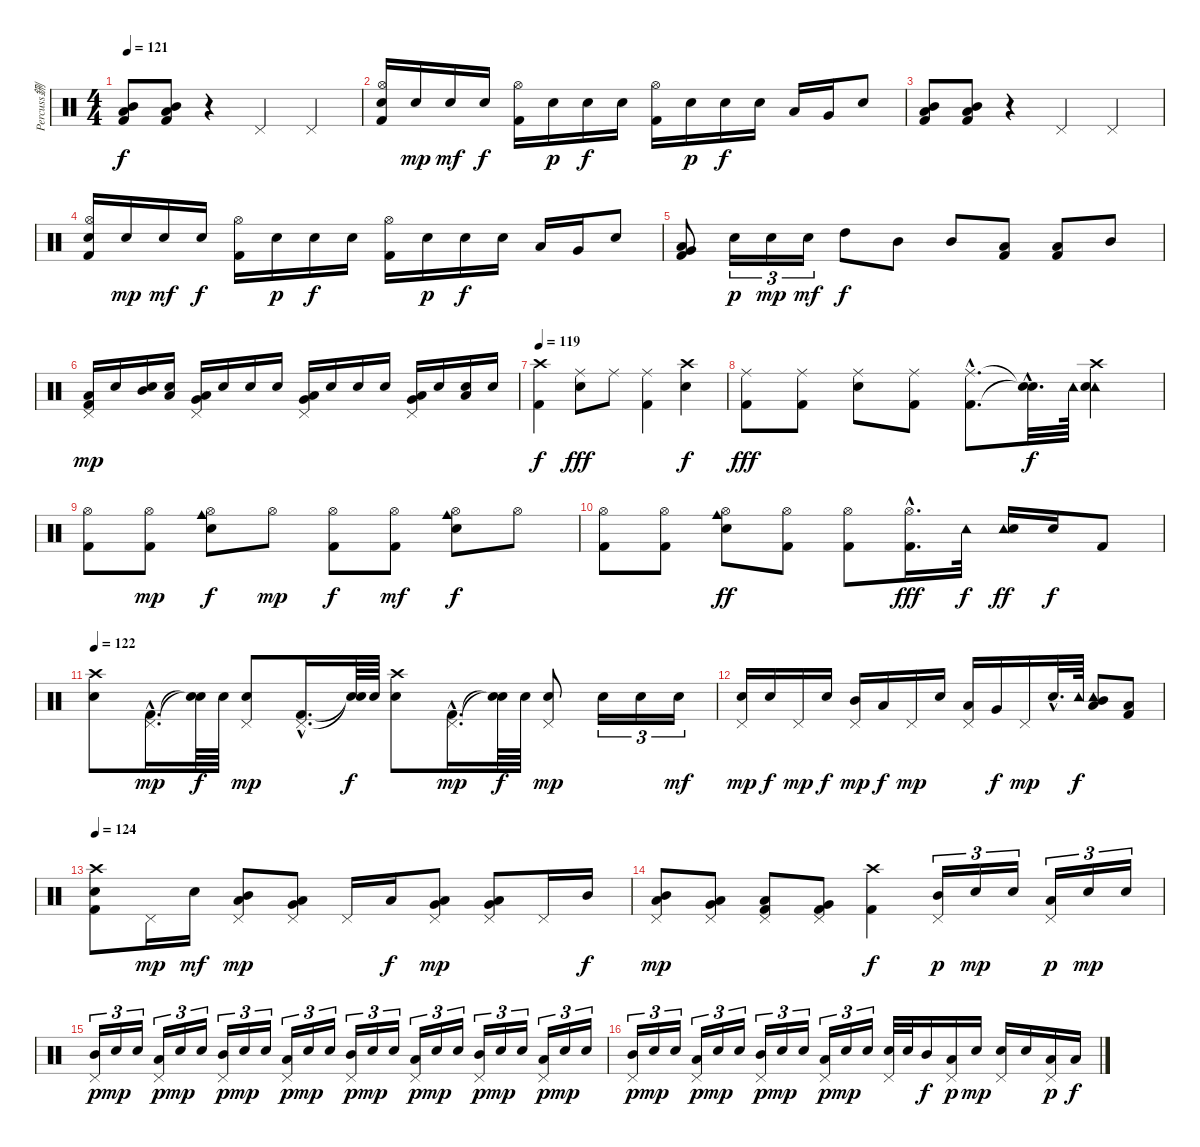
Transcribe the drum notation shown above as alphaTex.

\track ("Percuss鉶" "Percuss鉶") {instrument percussion}
\staff {score}
\articulation defaults
\ts (4 4)
\tempo 121
\clef neutral
\ks c
("Mid Tom (hit)" "Low Tom (hit)" "Kick (hit) 2").8{dy f} ("Mid Tom (hit)" "Low Tom (hit)" "Kick (hit) 2").8 r.4 "Pedal Hi-Hat (hit)".4 "Pedal Hi-Hat (hit)".4 |
("Hi-Hat (open)" "Snare (hit) 2" "Kick (hit) 2").16 "Snare (hit) 2".16{dy mp} "Snare (hit) 2".16{dy mf} "Snare (hit) 2".16{dy f} ("Hi-Hat (open)" "Kick (hit) 2").16 "Snare (hit) 2".16{dy p} "Snare (hit) 2".16{dy f} "Snare (hit) 2".16 ("Hi-Hat (open)" "Kick (hit) 2").16 "Snare (hit) 2".16{dy p} "Snare (hit) 2".16{dy f} "Snare (hit) 2".16 "Low Tom (hit)".16 "Very Low Tom (hit)".16 "Snare (hit) 2".8 |
("Mid Tom (hit)" "Low Tom (hit)" "Kick (hit) 2").8 ("Mid Tom (hit)" "Low Tom (hit)" "Kick (hit) 2").8 r.4 "Pedal Hi-Hat (hit)".4 "Pedal Hi-Hat (hit)".4 |
("Hi-Hat (open)" "Snare (hit) 2" "Kick (hit) 2").16 "Snare (hit) 2".16{dy mp} "Snare (hit) 2".16{dy mf} "Snare (hit) 2".16{dy f} ("Hi-Hat (open)" "Kick (hit) 2").16 "Snare (hit) 2".16{dy p} "Snare (hit) 2".16{dy f} "Snare (hit) 2".16 ("Hi-Hat (open)" "Kick (hit) 2").16 "Snare (hit) 2".16{dy p} "Snare (hit) 2".16{dy f} "Snare (hit) 2".16 "Low Tom (hit)".16 "Very Low Tom (hit)".16 "Snare (hit) 2".8 |
("Low Tom (hit)" "Very Low Tom (hit)" "Kick (hit) 2").8 "Snare (hit) 2".16{tu (3 2) dy p} "Snare (hit) 2".16{tu (3 2) dy mp} "Snare (hit) 2".16{tu (3 2) dy mf} "High Tom (hit)".8{dy f} "Mid Tom (hit)".8 "Mid Tom (hit)".8 ("Low Tom (hit)" "Kick (hit) 2").8 ("Low Tom (hit)" "Kick (hit) 2").8 "Mid Tom (hit)".8 |
("Pedal Hi-Hat (hit)" "Low Tom (hit)" "Kick (hit) 2").16{dy mp} "Snare (hit) 2".16 ("Mid Tom (hit)" "Snare (hit) 2").16 ("Low Tom (hit)" "Snare (hit) 2").16 ("Pedal Hi-Hat (hit)" "Low Tom (hit)" "Very Low Tom (hit)").16 "Snare (hit) 2".16 "Snare (hit) 2".16 "Snare (hit) 2".16 ("Pedal Hi-Hat (hit)" "Very Low Tom (hit)" "Low Floor Tom (hit)").16 "Snare (hit) 2".16 "Snare (hit) 2".16 "Snare (hit) 2".16 ("Pedal Hi-Hat (hit)" "Low Tom (hit)" "Very Low Tom (hit)").16 "Snare (hit) 2".16 ("Low Floor Tom (hit)" "Snare (hit) 2").16 "Snare (hit) 2".16 |
\tempo 119
("Crash high (hit)" "Kick (hit) 2").4{dy f} ("Ride (middle)" "Snare (hit) 2").8{dy fff} "Ride (middle)".8 ("Ride (middle)" "Kick (hit) 2").4 ("Crash high (hit)" "Snare (hit) 2").4{dy f} |
("Ride (middle)" "Kick (hit) 2").8{dy fff} ("Ride (middle)" "Kick (hit) 2").8 ("Ride (middle)" "Snare (hit) 2").8 ("Ride (middle)" "Kick (hit) 2").8 ("Ride (middle)"{hac} "Kick (hit) 2"{hac}).8{d} ("Snare (hit)"{hac t} "Snare (hit)"{hac t}).32{d dy f} "Tambourine (hit)".64 ("Crash high (hit)" "Tambourine (hit)" "Snare (hit) 2").4 |
("Hi-Hat (open)" "Kick (hit) 2").8 ("Hi-Hat (open)" "Kick (hit) 2").8{dy mp} ("Cowbell medium (hit)" "Hi-Hat (open)" "Snare (hit) 2").8{dy f} "Hi-Hat (open)".8{dy mp} ("Hi-Hat (open)" "Kick (hit) 2").8{dy f} ("Hi-Hat (open)" "Kick (hit) 2").8{dy mf} ("Cowbell medium (hit)" "Hi-Hat (open)" "Snare (hit) 2").8{dy f} "Hi-Hat (open)".8 |
("Hi-Hat (open)" "Kick (hit) 2").8 ("Hi-Hat (open)" "Kick (hit) 2").8 ("Cowbell medium (hit)" "Hi-Hat (open)" "Snare (hit) 2").8{dy ff} ("Hi-Hat (open)" "Kick (hit) 2").8 ("Hi-Hat (open)" "Kick (hit) 2").8 ("Hi-Hat (open)"{hac} "Kick (hit) 2"{hac}).16{d dy fff} "Tambourine (hit)".32{dy f} ("Tambourine (hit)" "Snare (hit) 2").16{dy ff} "Snare (hit) 2".16{dy f} "Kick (hit) 2".8 |
\tempo 122
("Crash high (hit)" "Snare (hit) 2").8 ("Pedal Hi-Hat (hit)"{hac} "Kick (hit) 2"{hac}).16{d dy mp} ("Snare (hit)"{t} "Snare (hit)"{t}).64{dy f} "Snare (hit) 2".64 ("Pedal Hi-Hat (hit)" "Snare (hit) 2").8{dy mp} ("Pedal Hi-Hat (hit)"{hac} "Kick (hit) 2"{hac}).16{d} ("Snare (hit)"{t} "Snare (hit)"{t}).64{dy f} "Snare (hit) 2".64 ("Crash high (hit)" "Snare (hit) 2").8 ("Pedal Hi-Hat (hit)"{hac} "Kick (hit) 2"{hac}).16{d dy mp} ("Snare (hit)"{t} "Snare (hit)"{t}).64{dy f} "Snare (hit) 2".64 ("Pedal Hi-Hat (hit)" "Snare (hit) 2").8{dy mp} "Snare (hit) 2".16{tu (3 2)} "Snare (hit) 2".16{tu (3 2)} "Snare (hit) 2".16{tu (3 2) dy mf} |
("Pedal Hi-Hat (hit)" "Snare (hit) 2").16{dy mp} "Snare (hit) 2".16{dy f} "Pedal Hi-Hat (hit)".16{dy mp} "Snare (hit) 2".16{dy f} ("Pedal Hi-Hat (hit)" "Mid Tom (hit)").16{dy mp} "Low Tom (hit)".16{dy f} "Pedal Hi-Hat (hit)".16{dy mp} "Snare (hit) 2".16 ("Pedal Hi-Hat (hit)" "Low Tom (hit)").16 "Very Low Tom (hit)".16{dy f} "Pedal Hi-Hat (hit)".16{dy mp} "Snare (hit) 2"{hac}.32{d} "Tambourine (hit)".64{dy f} ("Tambourine (hit)" "Mid Tom (hit)" "Low Tom (hit)").8 ("Low Floor Tom (hit)" "Kick (hit) 2").8 |
\tempo 124
("Crash high (hit)" "Snare (hit) 2" "Kick (hit) 2").8 "Pedal Hi-Hat (hit)".16{dy mp} "Snare (hit) 2".16{dy mf} ("Pedal Hi-Hat (hit)" "Mid Tom (hit)" "Low Tom (hit)").8{dy mp} ("Pedal Hi-Hat (hit)" "Low Tom (hit)" "Very Low Tom (hit)").8 "Pedal Hi-Hat (hit)".16 "Low Tom (hit)".16{dy f} ("Pedal Hi-Hat (hit)" "Low Tom (hit)" "Very Low Tom (hit)").8{dy mp} ("Pedal Hi-Hat (hit)" "Very Low Tom (hit)" "Low Floor Tom (hit)").8 "Pedal Hi-Hat (hit)".16 "Mid Tom (hit)".16{dy f} |
("Pedal Hi-Hat (hit)" "Mid Tom (hit)" "Low Tom (hit)").8{dy mp} ("Pedal Hi-Hat (hit)" "Low Tom (hit)" "Very Low Tom (hit)").8 ("Pedal Hi-Hat (hit)" "Low Tom (hit)" "Kick (hit) 2").8 ("Pedal Hi-Hat (hit)" "Very Low Tom (hit)" "Kick (hit) 2").8 ("Crash high (hit)" "Kick (hit) 2").4{dy f} ("Pedal Hi-Hat (hit)" "Mid Tom (hit)").16{tu (3 2) dy p} "Snare (hit) 2".16{tu (3 2) dy mp} "Snare (hit) 2".16{tu (3 2)} ("Pedal Hi-Hat (hit)" "Low Tom (hit)").16{tu (3 2) dy p} "Snare (hit) 2".16{tu (3 2) dy mp} "Snare (hit) 2".16{tu (3 2)} |
("Pedal Hi-Hat (hit)" "Mid Tom (hit)").16{tu (3 2) dy p} "Snare (hit) 2".16{tu (3 2) dy mp} "Snare (hit) 2".16{tu (3 2)} ("Pedal Hi-Hat (hit)" "Low Tom (hit)").16{tu (3 2) dy p} "Snare (hit) 2".16{tu (3 2) dy mp} "Snare (hit) 2".16{tu (3 2)} ("Pedal Hi-Hat (hit)" "Mid Tom (hit)").16{tu (3 2) dy p} "Snare (hit) 2".16{tu (3 2) dy mp} "Snare (hit) 2".16{tu (3 2)} ("Pedal Hi-Hat (hit)" "Low Tom (hit)").16{tu (3 2) dy p} "Snare (hit) 2".16{tu (3 2) dy mp} "Snare (hit) 2".16{tu (3 2)} ("Pedal Hi-Hat (hit)" "Mid Tom (hit)").16{tu (3 2) dy p} "Snare (hit) 2".16{tu (3 2) dy mp} "Snare (hit) 2".16{tu (3 2)} ("Pedal Hi-Hat (hit)" "Low Tom (hit)").16{tu (3 2) dy p} "Snare (hit) 2".16{tu (3 2) dy mp} "Snare (hit) 2".16{tu (3 2)} ("Pedal Hi-Hat (hit)" "Mid Tom (hit)").16{tu (3 2) dy p} "Snare (hit) 2".16{tu (3 2) dy mp} "Snare (hit) 2".16{tu (3 2)} ("Pedal Hi-Hat (hit)" "Low Tom (hit)").16{tu (3 2) dy p} "Snare (hit) 2".16{tu (3 2) dy mp} "Snare (hit) 2".16{tu (3 2)} |
("Pedal Hi-Hat (hit)" "Mid Tom (hit)").16{tu (3 2) dy p} "Snare (hit) 2".16{tu (3 2) dy mp} "Snare (hit) 2".16{tu (3 2)} ("Pedal Hi-Hat (hit)" "Low Tom (hit)").16{tu (3 2) dy p} "Snare (hit) 2".16{tu (3 2) dy mp} "Snare (hit) 2".16{tu (3 2)} ("Pedal Hi-Hat (hit)" "Mid Tom (hit)").16{tu (3 2) dy p} "Snare (hit) 2".16{tu (3 2) dy mp} "Snare (hit) 2".16{tu (3 2)} ("Pedal Hi-Hat (hit)" "Low Tom (hit)").16{tu (3 2) dy p} "Snare (hit) 2".16{tu (3 2) dy mp} "Snare (hit) 2".16{tu (3 2)} ("Pedal Hi-Hat (hit)" "Snare (hit) 2").32 "Snare (hit) 2".32 "Mid Tom (hit)".16{dy f} ("Pedal Hi-Hat (hit)" "Low Tom (hit)").16{dy p} "Snare (hit) 2".16{dy mp} ("Pedal Hi-Hat (hit)" "Snare (hit) 2").16 "Snare (hit) 2".16 ("Pedal Hi-Hat (hit)" "Low Tom (hit)").16{dy p} "Low Tom (hit)".16{dy f}
